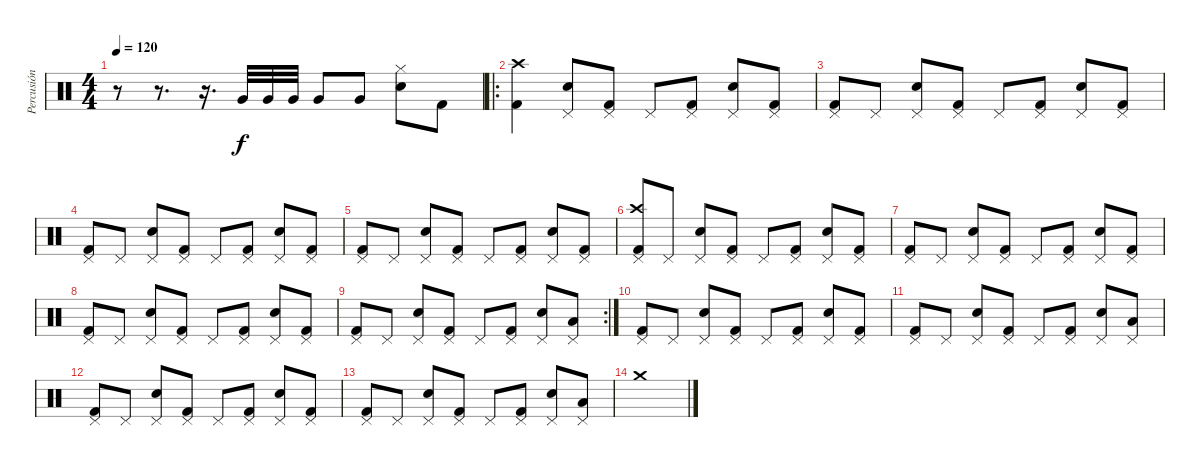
\track ("Percusión" "Percusión") {instrument percussion}
\staff {score}
\articulation defaults
\ts (4 4)
\tempo 120
\clef neutral
\ks c
r.8{dy f} r.8{d} r.16{d} "Very Low Tom (hit)".32 "Very Low Tom (hit)".32 "Very Low Tom (hit)".32 "Very Low Tom (hit)".8 "Very Low Tom (hit)".8 ("Hi-Hat (closed)" "Electric Snare (hit)").8 "Kick (hit) 2".8 |
\ro
("Crash high (hit)" "Kick (hit) 2").4 ("Pedal Hi-Hat (hit)" "Electric Snare (hit)").8 ("Pedal Hi-Hat (hit)" "Kick (hit) 2").8 "Pedal Hi-Hat (hit)".8 ("Pedal Hi-Hat (hit)" "Kick (hit) 2").8 ("Pedal Hi-Hat (hit)" "Electric Snare (hit)").8 ("Pedal Hi-Hat (hit)" "Kick (hit) 2").8 |
("Pedal Hi-Hat (hit)" "Kick (hit) 2").8 "Pedal Hi-Hat (hit)".8 ("Pedal Hi-Hat (hit)" "Electric Snare (hit)").8 ("Pedal Hi-Hat (hit)" "Kick (hit) 2").8 "Pedal Hi-Hat (hit)".8 ("Pedal Hi-Hat (hit)" "Kick (hit) 2").8 ("Pedal Hi-Hat (hit)" "Electric Snare (hit)").8 ("Pedal Hi-Hat (hit)" "Kick (hit) 2").8 |
("Pedal Hi-Hat (hit)" "Kick (hit) 2").8 "Pedal Hi-Hat (hit)".8 ("Pedal Hi-Hat (hit)" "Electric Snare (hit)").8 ("Pedal Hi-Hat (hit)" "Kick (hit) 2").8 "Pedal Hi-Hat (hit)".8 ("Pedal Hi-Hat (hit)" "Kick (hit) 2").8 ("Pedal Hi-Hat (hit)" "Electric Snare (hit)").8 ("Pedal Hi-Hat (hit)" "Kick (hit) 2").8 |
("Pedal Hi-Hat (hit)" "Kick (hit) 2").8 "Pedal Hi-Hat (hit)".8 ("Pedal Hi-Hat (hit)" "Electric Snare (hit)").8 ("Pedal Hi-Hat (hit)" "Kick (hit) 2").8 "Pedal Hi-Hat (hit)".8 ("Pedal Hi-Hat (hit)" "Kick (hit) 2").8 ("Pedal Hi-Hat (hit)" "Electric Snare (hit)").8 ("Pedal Hi-Hat (hit)" "Kick (hit) 2").8 |
("Crash high (hit)" "Pedal Hi-Hat (hit)" "Kick (hit) 2").8 "Pedal Hi-Hat (hit)".8 ("Pedal Hi-Hat (hit)" "Electric Snare (hit)").8 ("Pedal Hi-Hat (hit)" "Kick (hit) 2").8 "Pedal Hi-Hat (hit)".8 ("Pedal Hi-Hat (hit)" "Kick (hit) 2").8 ("Pedal Hi-Hat (hit)" "Electric Snare (hit)").8 ("Pedal Hi-Hat (hit)" "Kick (hit) 2").8 |
("Pedal Hi-Hat (hit)" "Kick (hit) 2").8 "Pedal Hi-Hat (hit)".8 ("Pedal Hi-Hat (hit)" "Electric Snare (hit)").8 ("Pedal Hi-Hat (hit)" "Kick (hit) 2").8 "Pedal Hi-Hat (hit)".8 ("Pedal Hi-Hat (hit)" "Kick (hit) 2").8 ("Pedal Hi-Hat (hit)" "Electric Snare (hit)").8 ("Pedal Hi-Hat (hit)" "Kick (hit) 2").8 |
("Pedal Hi-Hat (hit)" "Kick (hit) 2").8 "Pedal Hi-Hat (hit)".8 ("Pedal Hi-Hat (hit)" "Electric Snare (hit)").8 ("Pedal Hi-Hat (hit)" "Kick (hit) 2").8 "Pedal Hi-Hat (hit)".8 ("Pedal Hi-Hat (hit)" "Kick (hit) 2").8 ("Pedal Hi-Hat (hit)" "Electric Snare (hit)").8 ("Pedal Hi-Hat (hit)" "Kick (hit) 2").8 |
\rc 2
("Pedal Hi-Hat (hit)" "Kick (hit) 2").8 "Pedal Hi-Hat (hit)".8 ("Pedal Hi-Hat (hit)" "Electric Snare (hit)").8 ("Pedal Hi-Hat (hit)" "Kick (hit) 2").8 "Pedal Hi-Hat (hit)".8 ("Pedal Hi-Hat (hit)" "Kick (hit) 2").8 ("Pedal Hi-Hat (hit)" "Electric Snare (hit)").8 ("Pedal Hi-Hat (hit)" "Low Tom (hit)").8 |
("Pedal Hi-Hat (hit)" "Kick (hit) 2").8 "Pedal Hi-Hat (hit)".8 ("Pedal Hi-Hat (hit)" "Electric Snare (hit)").8 ("Pedal Hi-Hat (hit)" "Kick (hit) 2").8 "Pedal Hi-Hat (hit)".8 ("Pedal Hi-Hat (hit)" "Kick (hit) 2").8 ("Pedal Hi-Hat (hit)" "Electric Snare (hit)").8 ("Pedal Hi-Hat (hit)" "Kick (hit) 2").8 |
("Pedal Hi-Hat (hit)" "Kick (hit) 2").8 "Pedal Hi-Hat (hit)".8 ("Pedal Hi-Hat (hit)" "Electric Snare (hit)").8 ("Pedal Hi-Hat (hit)" "Kick (hit) 2").8 "Pedal Hi-Hat (hit)".8 ("Pedal Hi-Hat (hit)" "Kick (hit) 2").8 ("Pedal Hi-Hat (hit)" "Electric Snare (hit)").8 ("Pedal Hi-Hat (hit)" "Low Tom (hit)").8 |
("Pedal Hi-Hat (hit)" "Kick (hit) 2").8 "Pedal Hi-Hat (hit)".8 ("Pedal Hi-Hat (hit)" "Electric Snare (hit)").8 ("Pedal Hi-Hat (hit)" "Kick (hit) 2").8 "Pedal Hi-Hat (hit)".8 ("Pedal Hi-Hat (hit)" "Kick (hit) 2").8 ("Pedal Hi-Hat (hit)" "Electric Snare (hit)").8 ("Pedal Hi-Hat (hit)" "Kick (hit) 2").8 |
("Pedal Hi-Hat (hit)" "Kick (hit) 2").8 "Pedal Hi-Hat (hit)".8 ("Pedal Hi-Hat (hit)" "Electric Snare (hit)").8 ("Pedal Hi-Hat (hit)" "Kick (hit) 2").8 "Pedal Hi-Hat (hit)".8 ("Pedal Hi-Hat (hit)" "Kick (hit) 2").8 ("Pedal Hi-Hat (hit)" "Electric Snare (hit)").8 ("Pedal Hi-Hat (hit)" "Low Tom (hit)").8 |
"Crash medium (hit)".1
